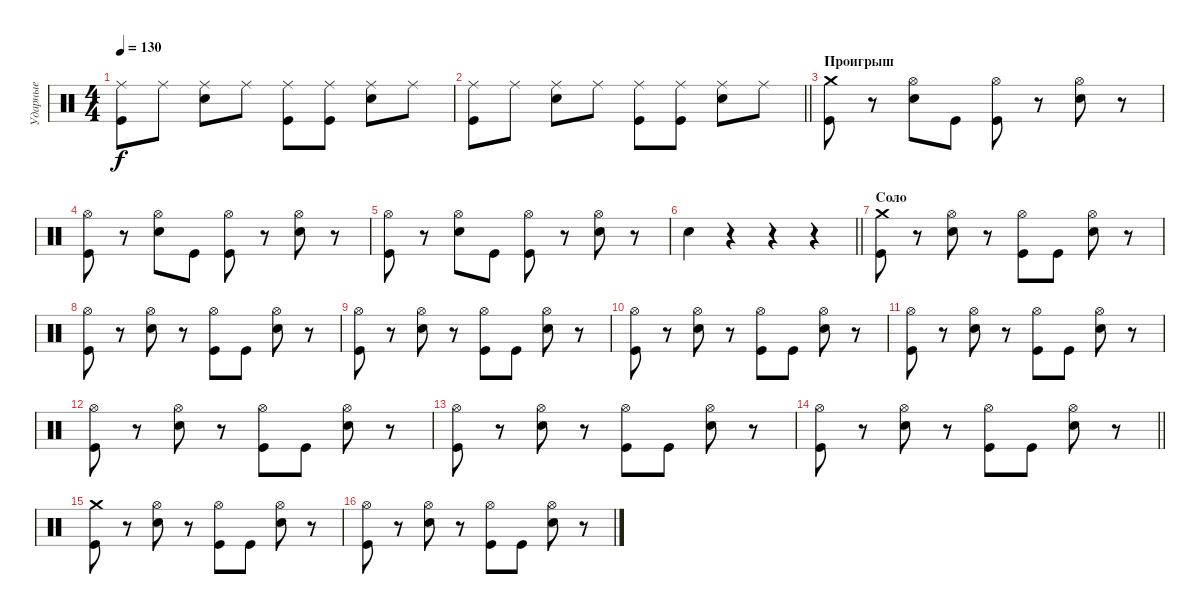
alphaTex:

\track ("Ударные" "Ударные") {instrument percussion}
\staff {score}
\articulation defaults
\ts (4 4)
\tempo 130
\clef neutral
\ks c
("Ride (middle)" "Kick (hit)").8{dy f} "Ride (middle)".8 ("Ride (middle)" "Electric Snare (hit)").8 "Ride (middle)".8 ("Ride (middle)" "Kick (hit)").8 ("Ride (middle)" "Kick (hit)").8 ("Ride (middle)" "Electric Snare (hit)").8 "Ride (middle)".8 |
\barLineRight lightlight
("Ride (middle)" "Kick (hit)").8 "Ride (middle)".8 ("Ride (middle)" "Electric Snare (hit)").8 "Ride (middle)".8 ("Ride (middle)" "Kick (hit)").8 ("Ride (middle)" "Kick (hit)").8 ("Ride (middle)" "Electric Snare (hit)").8 "Ride (middle)".8 |
\section ("" "Проигрыш")
("Crash medium (hit)" "Kick (hit)").8 r.8 ("Electric Snare (hit)" "Hi-Hat (open)").8 "Kick (hit)".8 ("Kick (hit)" "Hi-Hat (open)").8 r.8 ("Electric Snare (hit)" "Hi-Hat (open)").8 r.8 |
("Kick (hit)" "Hi-Hat (open)").8 r.8 ("Electric Snare (hit)" "Hi-Hat (open)").8 "Kick (hit)".8 ("Kick (hit)" "Hi-Hat (open)").8 r.8 ("Electric Snare (hit)" "Hi-Hat (open)").8 r.8 |
("Kick (hit)" "Hi-Hat (open)").8 r.8 ("Electric Snare (hit)" "Hi-Hat (open)").8 "Kick (hit)".8 ("Kick (hit)" "Hi-Hat (open)").8 r.8 ("Electric Snare (hit)" "Hi-Hat (open)").8 r.8 |
\barLineRight lightlight "Electric Snare (hit)".4
r.4 r.4 r.4 |
\section ("" "Соло")
("Crash medium (hit)" "Kick (hit)").8 r.8 ("Hi-Hat (open)" "Electric Snare (hit)").8 r.8 ("Hi-Hat (open)" "Kick (hit)").8 "Kick (hit)".8 ("Hi-Hat (open)" "Electric Snare (hit)").8 r.8 |
("Hi-Hat (open)" "Kick (hit)").8 r.8 ("Hi-Hat (open)" "Electric Snare (hit)").8 r.8 ("Hi-Hat (open)" "Kick (hit)").8 "Kick (hit)".8 ("Hi-Hat (open)" "Electric Snare (hit)").8 r.8 |
("Hi-Hat (open)" "Kick (hit)").8 r.8 ("Hi-Hat (open)" "Electric Snare (hit)").8 r.8 ("Hi-Hat (open)" "Kick (hit)").8 "Kick (hit)".8 ("Hi-Hat (open)" "Electric Snare (hit)").8 r.8 |
("Hi-Hat (open)" "Kick (hit)").8 r.8 ("Hi-Hat (open)" "Electric Snare (hit)").8 r.8 ("Hi-Hat (open)" "Kick (hit)").8 "Kick (hit)".8 ("Hi-Hat (open)" "Electric Snare (hit)").8 r.8 |
("Hi-Hat (open)" "Kick (hit)").8 r.8 ("Hi-Hat (open)" "Electric Snare (hit)").8 r.8 ("Hi-Hat (open)" "Kick (hit)").8 "Kick (hit)".8 ("Hi-Hat (open)" "Electric Snare (hit)").8 r.8 |
("Hi-Hat (open)" "Kick (hit)").8 r.8 ("Hi-Hat (open)" "Electric Snare (hit)").8 r.8 ("Hi-Hat (open)" "Kick (hit)").8 "Kick (hit)".8 ("Hi-Hat (open)" "Electric Snare (hit)").8 r.8 |
("Hi-Hat (open)" "Kick (hit)").8 r.8 ("Hi-Hat (open)" "Electric Snare (hit)").8 r.8 ("Hi-Hat (open)" "Kick (hit)").8 "Kick (hit)".8 ("Hi-Hat (open)" "Electric Snare (hit)").8 r.8 |
\barLineRight lightlight
("Hi-Hat (open)" "Kick (hit)").8 r.8 ("Hi-Hat (open)" "Electric Snare (hit)").8 r.8 ("Hi-Hat (open)" "Kick (hit)").8 "Kick (hit)".8 ("Hi-Hat (open)" "Electric Snare (hit)").8 r.8 |
("Crash medium (hit)" "Kick (hit)").8 r.8 ("Hi-Hat (open)" "Electric Snare (hit)").8 r.8 ("Hi-Hat (open)" "Kick (hit)").8 "Kick (hit)".8 ("Hi-Hat (open)" "Electric Snare (hit)").8 r.8 |
("Hi-Hat (open)" "Kick (hit)").8 r.8 ("Hi-Hat (open)" "Electric Snare (hit)").8 r.8 ("Hi-Hat (open)" "Kick (hit)").8 "Kick (hit)".8 ("Hi-Hat (open)" "Electric Snare (hit)").8 r.8
